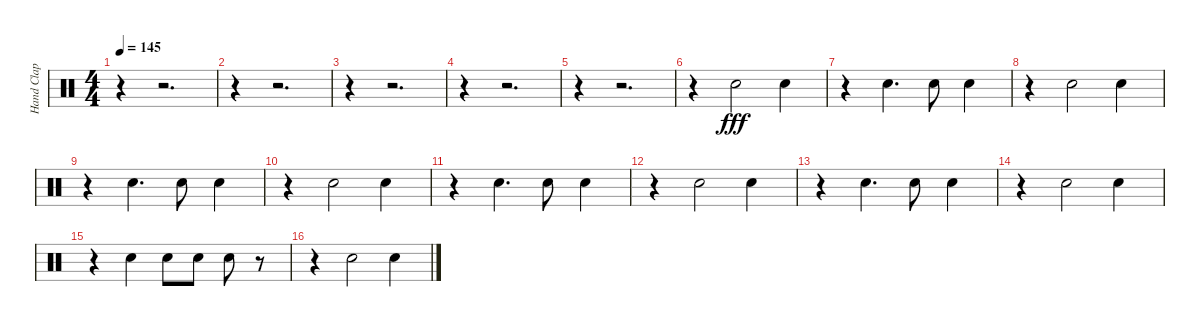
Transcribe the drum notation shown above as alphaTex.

\track ("Hand Clap" "Hand Clap") {instrument percussion}
\staff {score}
\articulation defaults
\ts (4 4)
\tempo 145
\clef neutral
\ks c
r.4{dy fff} r.2{d} |
r.4 r.2{d} |
r.4 r.2{d} |
r.4 r.2{d} |
r.4 r.2{d} |
r.4 "Hand Clap (hit)".2 "Hand Clap (hit)".4 |
r.4 "Hand Clap (hit)".4{d} "Hand Clap (hit)".8 "Hand Clap (hit)".4 |
r.4 "Hand Clap (hit)".2 "Hand Clap (hit)".4 |
r.4 "Hand Clap (hit)".4{d} "Hand Clap (hit)".8 "Hand Clap (hit)".4 |
r.4 "Hand Clap (hit)".2 "Hand Clap (hit)".4 |
r.4 "Hand Clap (hit)".4{d} "Hand Clap (hit)".8 "Hand Clap (hit)".4 |
r.4 "Hand Clap (hit)".2 "Hand Clap (hit)".4 |
r.4 "Hand Clap (hit)".4{d} "Hand Clap (hit)".8 "Hand Clap (hit)".4 |
r.4 "Hand Clap (hit)".2 "Hand Clap (hit)".4 |
r.4 "Hand Clap (hit)".4 "Hand Clap (hit)".8 "Hand Clap (hit)".8 "Hand Clap (hit)".8 r.8 |
r.4 "Hand Clap (hit)".2 "Hand Clap (hit)".4
